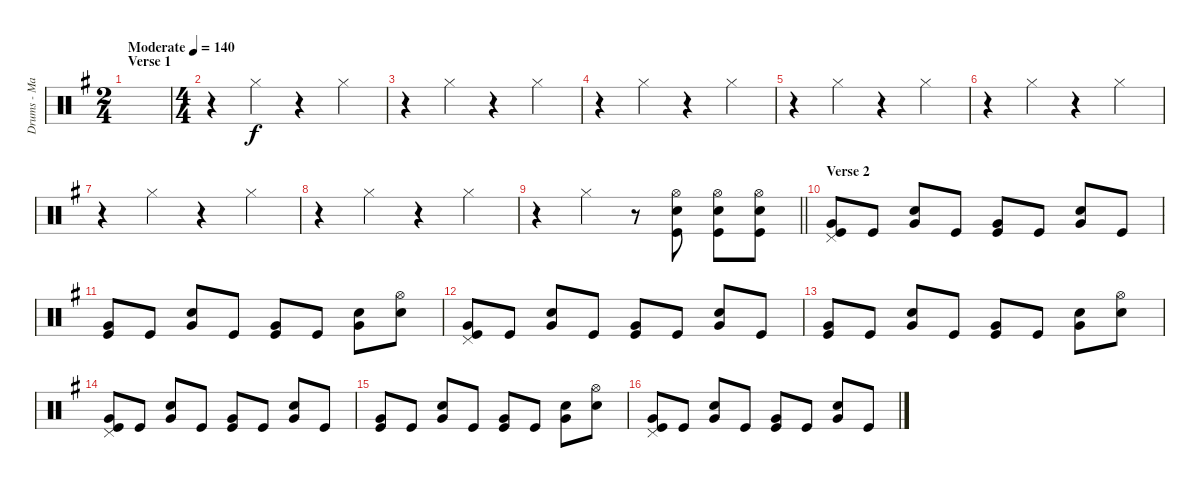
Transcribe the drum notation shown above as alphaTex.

\track ("Drums - Mark O'Connell" "Drums - Ma") {instrument percussion}
\staff {score}
\articulation defaults
\ts (2 4)
\section ("" "Verse 1")
\tempo (140 "Moderate")
\clef neutral
\ks g
|
\ts (4 4)
r.4 "Hi-Hat (closed)".4 r.4 "Hi-Hat (closed)".4 |
r.4 "Hi-Hat (closed)".4 r.4 "Hi-Hat (closed)".4 |
r.4 "Hi-Hat (closed)".4 r.4 "Hi-Hat (closed)".4 |
r.4 "Hi-Hat (closed)".4 r.4 "Hi-Hat (closed)".4 |
r.4 "Hi-Hat (closed)".4 r.4 "Hi-Hat (closed)".4 |
r.4 "Hi-Hat (closed)".4 r.4 "Hi-Hat (closed)".4 |
r.4 "Hi-Hat (closed)".4 r.4 "Hi-Hat (closed)".4 |
\barLineRight lightlight
r.4 "Hi-Hat (closed)".4 r.8 ("Hi-Hat (open)" "Snare (hit) 2" "Kick (hit)").8 ("Hi-Hat (open)" "Snare (hit) 2" "Kick (hit)").8 ("Hi-Hat (open)" "Snare (hit) 2" "Kick (hit)").8 |
\section ("" "Verse 2")
("Very Low Tom (hit)" "Pedal Hi-Hat (hit)" "Kick (hit)").8 "Kick (hit)".8 ("Very Low Tom (hit)" "Snare (hit) 2").8 "Kick (hit)".8 ("Very Low Tom (hit)" "Kick (hit)").8 "Kick (hit)".8 ("Very Low Tom (hit)" "Snare (hit) 2").8 "Kick (hit)".8 |
("Very Low Tom (hit)" "Kick (hit)").8 "Kick (hit)".8 ("Very Low Tom (hit)" "Snare (hit) 2").8 "Kick (hit)".8 ("Very Low Tom (hit)" "Kick (hit)").8 "Kick (hit)".8 ("Very Low Tom (hit)" "Snare (hit) 2").8 ("Hi-Hat (open)" "Snare (hit) 2").8 |
("Very Low Tom (hit)" "Pedal Hi-Hat (hit)" "Kick (hit)").8 "Kick (hit)".8 ("Very Low Tom (hit)" "Snare (hit) 2").8 "Kick (hit)".8 ("Very Low Tom (hit)" "Kick (hit)").8 "Kick (hit)".8 ("Very Low Tom (hit)" "Snare (hit) 2").8 "Kick (hit)".8 |
("Very Low Tom (hit)" "Kick (hit)").8 "Kick (hit)".8 ("Very Low Tom (hit)" "Snare (hit) 2").8 "Kick (hit)".8 ("Very Low Tom (hit)" "Kick (hit)").8 "Kick (hit)".8 ("Very Low Tom (hit)" "Snare (hit) 2").8 ("Hi-Hat (open)" "Snare (hit) 2").8 |
("Very Low Tom (hit)" "Pedal Hi-Hat (hit)" "Kick (hit)").8 "Kick (hit)".8 ("Very Low Tom (hit)" "Snare (hit) 2").8 "Kick (hit)".8 ("Very Low Tom (hit)" "Kick (hit)").8 "Kick (hit)".8 ("Very Low Tom (hit)" "Snare (hit) 2").8 "Kick (hit)".8 |
("Very Low Tom (hit)" "Kick (hit)").8 "Kick (hit)".8 ("Very Low Tom (hit)" "Snare (hit) 2").8 "Kick (hit)".8 ("Very Low Tom (hit)" "Kick (hit)").8 "Kick (hit)".8 ("Very Low Tom (hit)" "Snare (hit) 2").8 ("Hi-Hat (open)" "Snare (hit) 2").8 |
("Very Low Tom (hit)" "Pedal Hi-Hat (hit)" "Kick (hit)").8 "Kick (hit)".8 ("Very Low Tom (hit)" "Snare (hit) 2").8 "Kick (hit)".8 ("Very Low Tom (hit)" "Kick (hit)").8 "Kick (hit)".8 ("Very Low Tom (hit)" "Snare (hit) 2").8 "Kick (hit)".8
